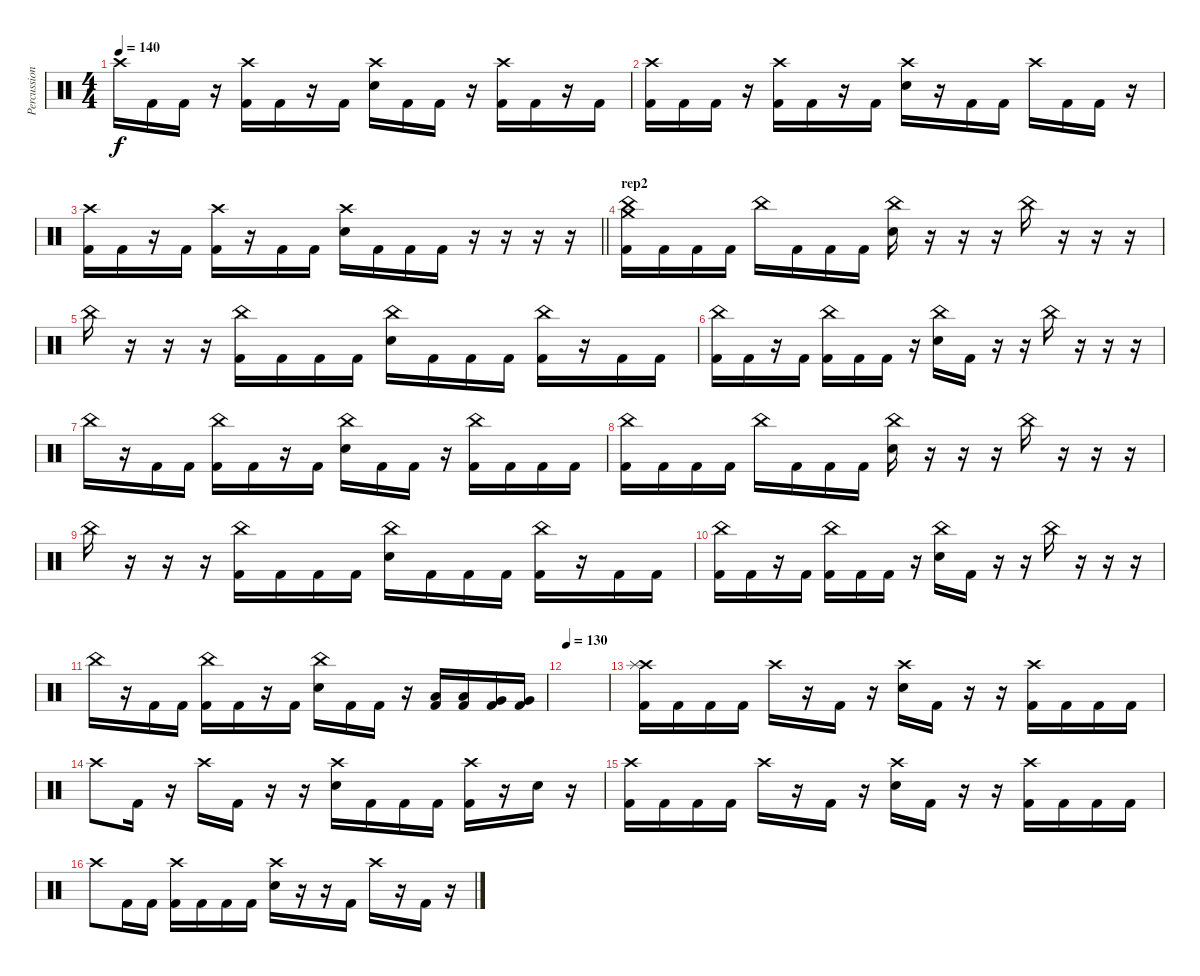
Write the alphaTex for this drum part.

\track ("Percussion" "Percussion") {instrument percussion}
\staff {score}
\articulation defaults
\ts (4 4)
\tempo 140
\clef neutral
\ks c "Crash high (hit)".16{dy f} "Kick (hit) 2".16 "Kick (hit) 2".16
r.16 ("Crash high (hit)" "Kick (hit) 2").16 "Kick (hit) 2".16 r.16 "Kick (hit) 2".16 ("Crash high (hit)" "Electric Snare (hit)").16 "Kick (hit) 2".16 "Kick (hit) 2".16 r.16 ("Crash high (hit)" "Kick (hit) 2").16 "Kick (hit) 2".16 r.16 "Kick (hit) 2".16 |
("Crash high (hit)" "Kick (hit) 2").16 "Kick (hit) 2".16 "Kick (hit) 2".16 r.16 ("Crash high (hit)" "Kick (hit) 2").16 "Kick (hit) 2".16 r.16 "Kick (hit) 2".16 ("Crash high (hit)" "Electric Snare (hit)").16 r.16 "Kick (hit) 2".16 "Kick (hit) 2".16 "Crash high (hit)".16 "Kick (hit) 2".16 "Kick (hit) 2".16 r.16 |
\barLineRight lightlight
("Crash high (hit)" "Kick (hit) 2").16 "Kick (hit) 2".16 r.16 "Kick (hit) 2".16 ("Crash high (hit)" "Kick (hit) 2").16 r.16 "Kick (hit) 2".16 "Kick (hit) 2".16 ("Crash high (hit)" "Electric Snare (hit)").16 "Kick (hit) 2".16 "Kick (hit) 2".16 "Kick (hit) 2".16 r.16 r.16 r.16 r.16 |
\section ("" "rep2")
("China (hit)" "Crash medium (hit)" "Kick (hit) 2").16 "Kick (hit) 2".16 "Kick (hit) 2".16 "Kick (hit) 2".16 "China (hit)".16 "Kick (hit) 2".16 "Kick (hit) 2".16 "Kick (hit) 2".16 ("China (hit)" "Electric Snare (hit)").16 r.16 r.16 r.16 "China (hit)".16 r.16 r.16 r.16 |
"China (hit)".16 r.16 r.16 r.16 ("China (hit)" "Kick (hit) 2").16 "Kick (hit) 2".16 "Kick (hit) 2".16 "Kick (hit) 2".16 ("China (hit)" "Electric Snare (hit)").16 "Kick (hit) 2".16 "Kick (hit) 2".16 "Kick (hit) 2".16 ("China (hit)" "Kick (hit) 2").16 r.16 "Kick (hit) 2".16 "Kick (hit) 2".16 |
("China (hit)" "Kick (hit) 2").16 "Kick (hit) 2".16 r.16 "Kick (hit) 2".16 ("China (hit)" "Kick (hit) 2").16 "Kick (hit) 2".16 "Kick (hit) 2".16 r.16 ("China (hit)" "Electric Snare (hit)").16 "Kick (hit) 2".16 r.16 r.16 "China (hit)".16 r.16 r.16 r.16 |
"China (hit)".16 r.16 "Kick (hit) 2".16 "Kick (hit) 2".16 ("China (hit)" "Kick (hit) 2").16 "Kick (hit) 2".16 r.16 "Kick (hit) 2".16 ("China (hit)" "Electric Snare (hit)").16 "Kick (hit) 2".16 "Kick (hit) 2".16 r.16 ("China (hit)" "Kick (hit) 2").16 "Kick (hit) 2".16 "Kick (hit) 2".16 "Kick (hit) 2".16 |
("China (hit)" "Kick (hit) 2").16 "Kick (hit) 2".16 "Kick (hit) 2".16 "Kick (hit) 2".16 "China (hit)".16 "Kick (hit) 2".16 "Kick (hit) 2".16 "Kick (hit) 2".16 ("China (hit)" "Electric Snare (hit)").16 r.16 r.16 r.16 "China (hit)".16 r.16 r.16 r.16 |
"China (hit)".16 r.16 r.16 r.16 ("China (hit)" "Kick (hit) 2").16 "Kick (hit) 2".16 "Kick (hit) 2".16 "Kick (hit) 2".16 ("China (hit)" "Electric Snare (hit)").16 "Kick (hit) 2".16 "Kick (hit) 2".16 "Kick (hit) 2".16 ("China (hit)" "Kick (hit) 2").16 r.16 "Kick (hit) 2".16 "Kick (hit) 2".16 |
("China (hit)" "Kick (hit) 2").16 "Kick (hit) 2".16 r.16 "Kick (hit) 2".16 ("China (hit)" "Kick (hit) 2").16 "Kick (hit) 2".16 "Kick (hit) 2".16 r.16 ("China (hit)" "Electric Snare (hit)").16 "Kick (hit) 2".16 r.16 r.16 "China (hit)".16 r.16 r.16 r.16 |
"China (hit)".16 r.16 "Kick (hit) 2".16 "Kick (hit) 2".16 ("China (hit)" "Kick (hit) 2").16 "Kick (hit) 2".16 r.16 "Kick (hit) 2".16 ("China (hit)" "Electric Snare (hit)").16 "Kick (hit) 2".16 "Kick (hit) 2".16 r.16 ("Low Tom (hit)" "Kick (hit) 2").16 ("Low Tom (hit)" "Kick (hit) 2").16 ("Very Low Tom (hit)" "Kick (hit) 2").16 ("Very Low Tom (hit)" "Kick (hit) 2").16 |
\tempo 130
|
("Crash high (hit)" "Splash (hit)" "Kick (hit) 2").16 "Kick (hit) 2".16 "Kick (hit) 2".16 "Kick (hit) 2".16 "Crash high (hit)".16 r.16 "Kick (hit) 2".16 r.16 ("Crash high (hit)" "Electric Snare (hit)").16 "Kick (hit) 2".16 r.16 r.16 ("Crash high (hit)" "Kick (hit) 2").16 "Kick (hit) 2".16 "Kick (hit) 2".16 "Kick (hit) 2".16 |
"Crash high (hit)".8 "Kick (hit) 2".16 r.16 "Crash high (hit)".16 "Kick (hit) 2".16 r.16 r.16 ("Crash high (hit)" "Electric Snare (hit)").16 "Kick (hit) 2".16 "Kick (hit) 2".16 "Kick (hit) 2".16 ("Crash high (hit)" "Kick (hit) 2").16 r.16 "Electric Snare (hit)".16 r.16 |
("Crash high (hit)" "Kick (hit) 2").16 "Kick (hit) 2".16 "Kick (hit) 2".16 "Kick (hit) 2".16 "Crash high (hit)".16 r.16 "Kick (hit) 2".16 r.16 ("Crash high (hit)" "Electric Snare (hit)").16 "Kick (hit) 2".16 r.16 r.16 ("Crash high (hit)" "Kick (hit) 2").16 "Kick (hit) 2".16 "Kick (hit) 2".16 "Kick (hit) 2".16 |
"Crash high (hit)".8 "Kick (hit) 2".16 "Kick (hit) 2".16 ("Crash high (hit)" "Kick (hit) 2").16 "Kick (hit) 2".16 "Kick (hit) 2".16 "Kick (hit) 2".16 ("Crash high (hit)" "Electric Snare (hit)").16 r.16 r.16 "Kick (hit) 2".16 "Crash high (hit)".16 r.16 "Kick (hit) 2".16 r.16
